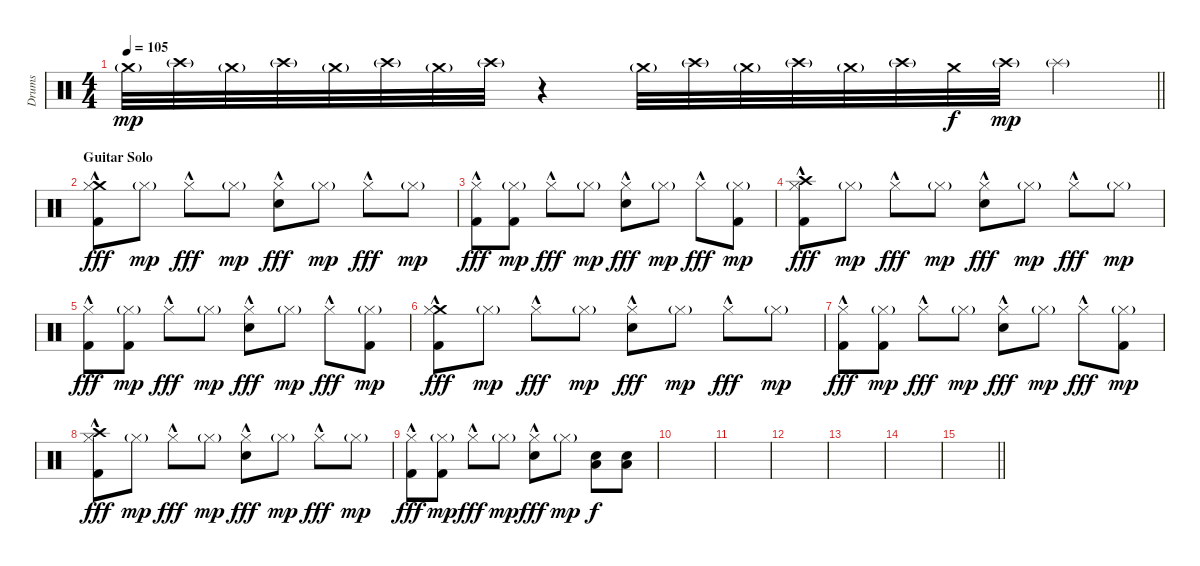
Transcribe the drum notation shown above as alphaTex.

\track ("Drums" "Drums") {instrument percussion}
\staff {score}
\articulation defaults
\ts (4 4)
\tempo 105
\clef neutral
\barLineRight lightlight
\ks c "Crash medium (hit)"{g}.32{dy mp} "Crash high (hit)"{g}.32 "Crash medium (hit)"{g}.32 "Crash high (hit)"{g}.32 "Crash medium (hit)"{g}.32 "Crash high (hit)"{g}.32 "Crash medium (hit)"{g}.32 "Crash high (hit)"{g}.32
r.4{volume 2} "Crash medium (hit)"{g}.32{volume 7} "Crash high (hit)"{g}.32 "Crash medium (hit)"{g}.32 "Crash high (hit)"{g}.32 "Crash medium (hit)"{g}.32 "Crash high (hit)"{g}.32 "Crash medium (hit)".32{dy f} "Crash high (hit)"{g}.32{dy mp} "Splash (hit)"{g}.4 |
\section ("" "Guitar Solo")
("Crash medium (hit)" "Hi-Hat (closed)"{hac} "Kick (hit) 2").8{dy fff} "Hi-Hat (closed)"{g}.8{dy mp} "Hi-Hat (closed)"{hac}.8{dy fff} "Hi-Hat (closed)"{g}.8{dy mp} ("Hi-Hat (closed)"{hac} "Snare (hit) 2").8{dy fff} "Hi-Hat (closed)"{g}.8{dy mp} "Hi-Hat (closed)"{hac}.8{dy fff} "Hi-Hat (closed)"{g}.8{dy mp} |
("Hi-Hat (closed)"{hac} "Kick (hit) 2").8{dy fff} ("Hi-Hat (closed)"{g} "Kick (hit) 2").8{dy mp} "Hi-Hat (closed)"{hac}.8{dy fff} "Hi-Hat (closed)"{g}.8{dy mp} ("Hi-Hat (closed)"{hac} "Snare (hit) 2").8{dy fff} "Hi-Hat (closed)"{g}.8{dy mp} "Hi-Hat (closed)"{hac}.8{dy fff} ("Hi-Hat (closed)"{g} "Kick (hit) 2").8{dy mp} |
("Crash high (hit)" "Hi-Hat (closed)"{hac} "Kick (hit) 2").8{dy fff} "Hi-Hat (closed)"{g}.8{dy mp} "Hi-Hat (closed)"{hac}.8{dy fff} "Hi-Hat (closed)"{g}.8{dy mp} ("Hi-Hat (closed)"{hac} "Snare (hit) 2").8{dy fff} "Hi-Hat (closed)"{g}.8{dy mp} "Hi-Hat (closed)"{hac}.8{dy fff} "Hi-Hat (closed)"{g}.8{dy mp} |
("Hi-Hat (closed)"{hac} "Kick (hit) 2").8{dy fff} ("Hi-Hat (closed)"{g} "Kick (hit) 2").8{dy mp} "Hi-Hat (closed)"{hac}.8{dy fff} "Hi-Hat (closed)"{g}.8{dy mp} ("Hi-Hat (closed)"{hac} "Snare (hit) 2").8{dy fff} "Hi-Hat (closed)"{g}.8{dy mp} "Hi-Hat (closed)"{hac}.8{dy fff} ("Hi-Hat (closed)"{g} "Kick (hit) 2").8{dy mp} |
("Crash medium (hit)" "Hi-Hat (closed)"{hac} "Kick (hit) 2").8{dy fff} "Hi-Hat (closed)"{g}.8{dy mp} "Hi-Hat (closed)"{hac}.8{dy fff} "Hi-Hat (closed)"{g}.8{dy mp} ("Hi-Hat (closed)"{hac} "Snare (hit) 2").8{dy fff} "Hi-Hat (closed)"{g}.8{dy mp} "Hi-Hat (closed)"{hac}.8{dy fff} "Hi-Hat (closed)"{g}.8{dy mp} |
("Hi-Hat (closed)"{hac} "Kick (hit) 2").8{dy fff} ("Hi-Hat (closed)"{g} "Kick (hit) 2").8{dy mp} "Hi-Hat (closed)"{hac}.8{dy fff} "Hi-Hat (closed)"{g}.8{dy mp} ("Hi-Hat (closed)"{hac} "Snare (hit) 2").8{dy fff} "Hi-Hat (closed)"{g}.8{dy mp} "Hi-Hat (closed)"{hac}.8{dy fff} ("Hi-Hat (closed)"{g} "Kick (hit) 2").8{dy mp} |
("Crash high (hit)" "Hi-Hat (closed)"{hac} "Kick (hit) 2").8{dy fff} "Hi-Hat (closed)"{g}.8{dy mp} "Hi-Hat (closed)"{hac}.8{dy fff} "Hi-Hat (closed)"{g}.8{dy mp} ("Hi-Hat (closed)"{hac} "Snare (hit) 2").8{dy fff} "Hi-Hat (closed)"{g}.8{dy mp} "Hi-Hat (closed)"{hac}.8{dy fff} "Hi-Hat (closed)"{g}.8{dy mp} |
("Hi-Hat (closed)"{hac} "Kick (hit) 2").8{dy fff} ("Hi-Hat (closed)"{g} "Kick (hit) 2").8{dy mp} "Hi-Hat (closed)"{hac}.8{dy fff} "Hi-Hat (closed)"{g}.8{dy mp} ("Hi-Hat (closed)"{hac} "Snare (hit) 2").8{dy fff} "Hi-Hat (closed)"{g}.8{dy mp} ("Low Floor Tom (hit)" "Snare (hit) 2").8{dy f} ("Low Floor Tom (hit)" "Snare (hit) 2").8 |
|
|
|
|
|
\barLineRight lightlight
